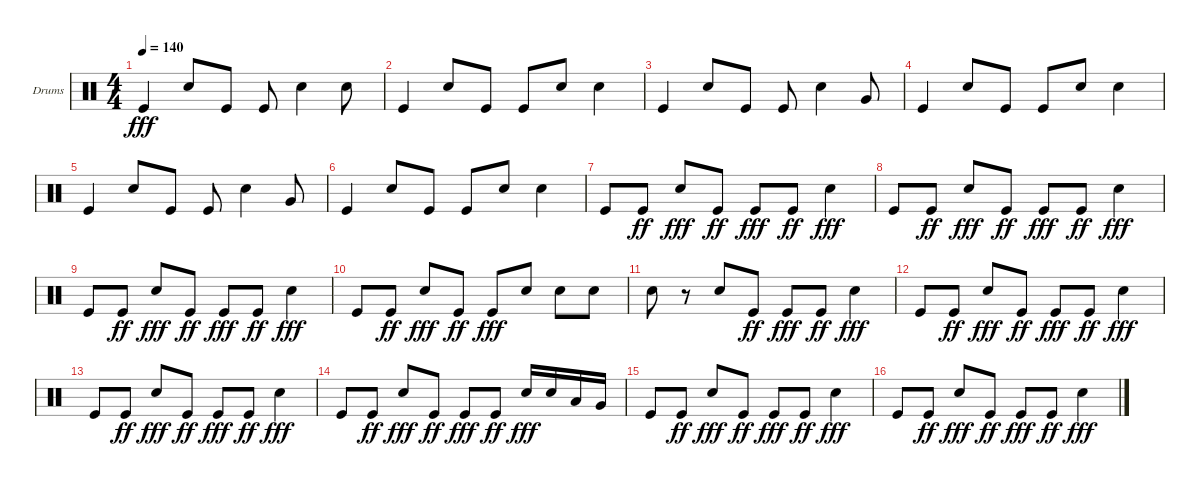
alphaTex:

\defaultSystemsLayout 4
\bracketExtendMode groupsimilarinstruments
\firstSystemTrackNameOrientation horizontal
\otherSystemsTrackNameOrientation horizontal
\track ("Helders" "Drums") {instrument percussion}
\staff {score}
\articulation defaults
\ts (4 4)
\tempo 140
\clef neutral
\ks c "Kick (hit)".4{dy fff} "Snare (hit) 2".8 "Kick (hit)".8 "Kick (hit)".8 "Snare (hit) 2".4 "Snare (hit) 2".8
|
"Kick (hit)".4 "Snare (hit) 2".8 "Kick (hit)".8 "Kick (hit)".8 "Snare (hit) 2".8 "Snare (hit) 2".4 |
"Kick (hit)".4 "Snare (hit) 2".8 "Kick (hit)".8 "Kick (hit)".8 "Snare (hit) 2".4 "Very Low Tom (hit)".8 |
"Kick (hit)".4 "Snare (hit) 2".8 "Kick (hit)".8 "Kick (hit)".8 "Snare (hit) 2".8 "Snare (hit) 2".4 |
"Kick (hit)".4 "Snare (hit) 2".8 "Kick (hit)".8 "Kick (hit)".8 "Snare (hit) 2".4 "Very Low Tom (hit)".8 |
"Kick (hit)".4 "Snare (hit) 2".8 "Kick (hit)".8 "Kick (hit)".8 "Snare (hit) 2".8 "Snare (hit) 2".4 |
"Kick (hit)".8 "Kick (hit)".8{dy ff} "Snare (hit) 2".8{dy fff} "Kick (hit)".8{dy ff} "Kick (hit)".8{dy fff} "Kick (hit)".8{dy ff} "Snare (hit) 2".4{dy fff} |
"Kick (hit)".8 "Kick (hit)".8{dy ff} "Snare (hit) 2".8{dy fff} "Kick (hit)".8{dy ff} "Kick (hit)".8{dy fff} "Kick (hit)".8{dy ff} "Snare (hit) 2".4{dy fff} |
"Kick (hit)".8 "Kick (hit)".8{dy ff} "Snare (hit) 2".8{dy fff} "Kick (hit)".8{dy ff} "Kick (hit)".8{dy fff} "Kick (hit)".8{dy ff} "Snare (hit) 2".4{dy fff} |
"Kick (hit)".8 "Kick (hit)".8{dy ff} "Snare (hit) 2".8{dy fff} "Kick (hit)".8{dy ff} "Kick (hit)".8{dy fff} "Snare (hit) 2".8 "Snare (hit) 2".8 "Snare (hit) 2".8 |
"Snare (hit) 2".8 r.8 "Snare (hit) 2".8 "Kick (hit)".8{dy ff} "Kick (hit)".8{dy fff} "Kick (hit)".8{dy ff} "Snare (hit) 2".4{dy fff} |
"Kick (hit)".8 "Kick (hit)".8{dy ff} "Snare (hit) 2".8{dy fff} "Kick (hit)".8{dy ff} "Kick (hit)".8{dy fff} "Kick (hit)".8{dy ff} "Snare (hit) 2".4{dy fff} |
"Kick (hit)".8 "Kick (hit)".8{dy ff} "Snare (hit) 2".8{dy fff} "Kick (hit)".8{dy ff} "Kick (hit)".8{dy fff} "Kick (hit)".8{dy ff} "Snare (hit) 2".4{dy fff} |
"Kick (hit)".8 "Kick (hit)".8{dy ff} "Snare (hit) 2".8{dy fff} "Kick (hit)".8{dy ff} "Kick (hit)".8{dy fff} "Kick (hit)".8{dy ff} "Snare (hit) 2".16{dy fff} "Snare (hit) 2".16 "Low Tom (hit)".16 "Very Low Tom (hit)".16 |
"Kick (hit)".8 "Kick (hit)".8{dy ff} "Snare (hit) 2".8{dy fff} "Kick (hit)".8{dy ff} "Kick (hit)".8{dy fff} "Kick (hit)".8{dy ff} "Snare (hit) 2".4{dy fff} |
"Kick (hit)".8 "Kick (hit)".8{dy ff} "Snare (hit) 2".8{dy fff} "Kick (hit)".8{dy ff} "Kick (hit)".8{dy fff} "Kick (hit)".8{dy ff} "Snare (hit) 2".4{dy fff}
